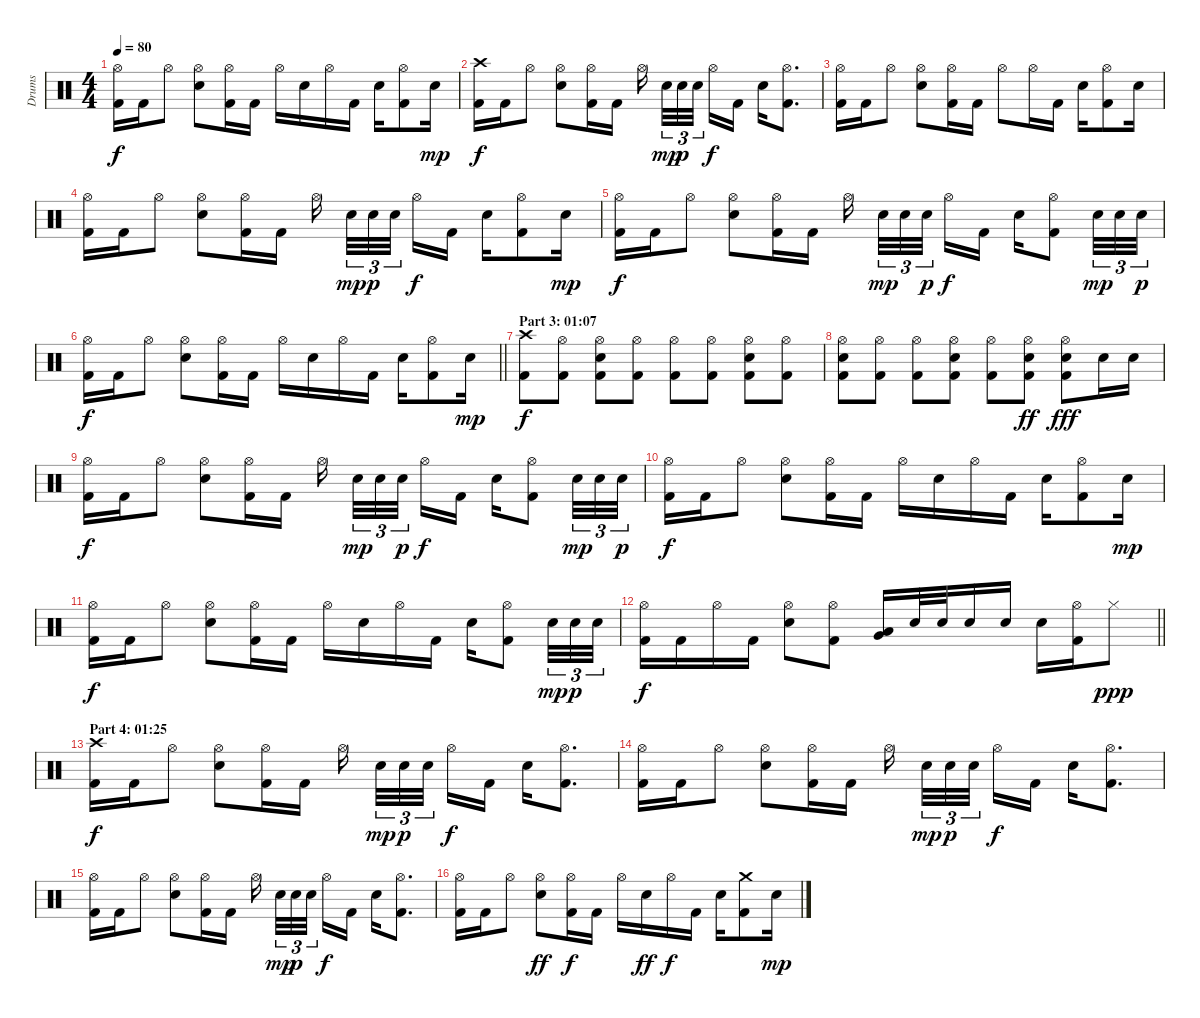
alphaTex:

\track ("Drums" "Drums") {instrument percussion}
\staff {score}
\articulation defaults
\ts (4 4)
\tempo 80
\clef neutral
\ks c
("Hi-Hat (open)" "Kick (hit) 2").16{dy f} "Kick (hit) 2".16 "Hi-Hat (open)".8 ("Hi-Hat (open)" "Electric Snare (hit)").8 ("Hi-Hat (open)" "Kick (hit) 2").16 "Kick (hit) 2".16 "Hi-Hat (open)".16 "Electric Snare (hit)".16 "Hi-Hat (open)".16 "Kick (hit) 2".16 "Electric Snare (hit)".16 ("Hi-Hat (open)" "Kick (hit) 2").8 "Electric Snare (hit)".16{dy mp} |
("Crash high (hit)" "Kick (hit) 2").16{dy f} "Kick (hit) 2".16 "Hi-Hat (open)".8 ("Hi-Hat (open)" "Electric Snare (hit)").8 ("Hi-Hat (open)" "Kick (hit) 2").16 "Kick (hit) 2".16 "Hi-Hat (open)".16{beam splitsecondary} "Electric Snare (hit)".32{tu (3 2) dy mp} "Electric Snare (hit)".32{tu (3 2) dy p} "Electric Snare (hit)".32{tu (3 2) beam splitsecondary} "Hi-Hat (open)".16{dy f} "Kick (hit) 2".16 "Electric Snare (hit)".16 ("Hi-Hat (open)" "Kick (hit) 2").8{d} |
("Hi-Hat (open)" "Kick (hit) 2").16 "Kick (hit) 2".16 "Hi-Hat (open)".8 ("Hi-Hat (open)" "Electric Snare (hit)").8 ("Hi-Hat (open)" "Kick (hit) 2").16 "Kick (hit) 2".16 "Hi-Hat (open)".8 "Hi-Hat (open)".16 "Kick (hit) 2".16 "Electric Snare (hit)".16 ("Hi-Hat (open)" "Kick (hit) 2").8 "Electric Snare (hit)".16 |
("Hi-Hat (open)" "Kick (hit) 2").16 "Kick (hit) 2".16 "Hi-Hat (open)".8 ("Hi-Hat (open)" "Electric Snare (hit)").8 ("Hi-Hat (open)" "Kick (hit) 2").16 "Kick (hit) 2".16 "Hi-Hat (open)".16{beam splitsecondary} "Electric Snare (hit)".32{tu (3 2) dy mp} "Electric Snare (hit)".32{tu (3 2) dy p} "Electric Snare (hit)".32{tu (3 2) beam splitsecondary} "Hi-Hat (open)".16{dy f} "Kick (hit) 2".16 "Electric Snare (hit)".16 ("Hi-Hat (open)" "Kick (hit) 2").8 "Electric Snare (hit)".16{dy mp} |
("Hi-Hat (open)" "Kick (hit) 2").16{dy f} "Kick (hit) 2".16 "Hi-Hat (open)".8 ("Hi-Hat (open)" "Electric Snare (hit)").8 ("Hi-Hat (open)" "Kick (hit) 2").16 "Kick (hit) 2".16 "Hi-Hat (open)".16{beam splitsecondary} "Electric Snare (hit)".32{tu (3 2) dy mp} "Electric Snare (hit)".32{tu (3 2)} "Electric Snare (hit)".32{tu (3 2) dy p beam splitsecondary} "Hi-Hat (open)".16{dy f} "Kick (hit) 2".16 "Electric Snare (hit)".16 ("Hi-Hat (open)" "Kick (hit) 2").8 "Electric Snare (hit)".32{tu (3 2) dy mp} "Electric Snare (hit)".32{tu (3 2)} "Electric Snare (hit)".32{tu (3 2) dy p} |
\barLineRight lightlight
("Hi-Hat (open)" "Kick (hit) 2").16{dy f} "Kick (hit) 2".16 "Hi-Hat (open)".8 ("Hi-Hat (open)" "Electric Snare (hit)").8 ("Hi-Hat (open)" "Kick (hit) 2").16 "Kick (hit) 2".16 "Hi-Hat (open)".16 "Electric Snare (hit)".16 "Hi-Hat (open)".16 "Kick (hit) 2".16 "Electric Snare (hit)".16 ("Hi-Hat (open)" "Kick (hit) 2").8 "Electric Snare (hit)".16{dy mp} |
\section ("" "Part 3: 01:07")
("Crash high (hit)" "Kick (hit) 2").8{dy f} ("Hi-Hat (open)" "Kick (hit) 2").8 ("Hi-Hat (open)" "Electric Snare (hit)" "Kick (hit) 2").8 ("Hi-Hat (open)" "Kick (hit) 2").8 ("Hi-Hat (open)" "Kick (hit) 2").8 ("Hi-Hat (open)" "Kick (hit) 2").8 ("Hi-Hat (open)" "Electric Snare (hit)" "Kick (hit) 2").8 ("Hi-Hat (open)" "Kick (hit) 2").8 |
("Hi-Hat (open)" "Electric Snare (hit)" "Kick (hit) 2").8 ("Hi-Hat (open)" "Kick (hit) 2").8 ("Hi-Hat (open)" "Kick (hit) 2").8 ("Hi-Hat (open)" "Electric Snare (hit)" "Kick (hit) 2").8 ("Hi-Hat (open)" "Kick (hit) 2").8 ("Hi-Hat (open)" "Electric Snare (hit)" "Kick (hit) 2").8{dy ff} ("Hi-Hat (open)" "Electric Snare (hit)" "Kick (hit) 2").8{dy fff} "Electric Snare (hit)".16 "Electric Snare (hit)".16 |
("Hi-Hat (open)" "Kick (hit) 2").16{dy f} "Kick (hit) 2".16 "Hi-Hat (open)".8 ("Hi-Hat (open)" "Electric Snare (hit)").8 ("Hi-Hat (open)" "Kick (hit) 2").16 "Kick (hit) 2".16 "Hi-Hat (open)".16{beam splitsecondary} "Electric Snare (hit)".32{tu (3 2) dy mp} "Electric Snare (hit)".32{tu (3 2)} "Electric Snare (hit)".32{tu (3 2) dy p beam splitsecondary} "Hi-Hat (open)".16{dy f} "Kick (hit) 2".16 "Electric Snare (hit)".16 ("Hi-Hat (open)" "Kick (hit) 2").8 "Electric Snare (hit)".32{tu (3 2) dy mp} "Electric Snare (hit)".32{tu (3 2)} "Electric Snare (hit)".32{tu (3 2) dy p} |
("Hi-Hat (open)" "Kick (hit) 2").16{dy f} "Kick (hit) 2".16 "Hi-Hat (open)".8 ("Hi-Hat (open)" "Electric Snare (hit)").8 ("Hi-Hat (open)" "Kick (hit) 2").16 "Kick (hit) 2".16 "Hi-Hat (open)".16 "Electric Snare (hit)".16 "Hi-Hat (open)".16 "Kick (hit) 2".16 "Electric Snare (hit)".16 ("Hi-Hat (open)" "Kick (hit) 2").8 "Electric Snare (hit)".16{dy mp} |
("Hi-Hat (open)" "Kick (hit) 2").16{dy f} "Kick (hit) 2".16 "Hi-Hat (open)".8 ("Hi-Hat (open)" "Electric Snare (hit)").8 ("Hi-Hat (open)" "Kick (hit) 2").16 "Kick (hit) 2".16 "Hi-Hat (open)".16 "Electric Snare (hit)".16 "Hi-Hat (open)".16 "Kick (hit) 2".16 "Electric Snare (hit)".16 ("Hi-Hat (open)" "Kick (hit) 2").8 "Electric Snare (hit)".32{tu (3 2) dy mp} "Electric Snare (hit)".32{tu (3 2) dy p} "Electric Snare (hit)".32{tu (3 2)} |
\barLineRight lightlight
("Hi-Hat (open)" "Kick (hit) 2").16{dy f} "Kick (hit) 2".16 "Hi-Hat (open)".16 "Kick (hit) 2".16 ("Hi-Hat (open)" "Electric Snare (hit)").8 ("Hi-Hat (open)" "Kick (hit) 2").8 ("Low Tom (hit)" "Very Low Tom (hit)").16{bu 60} "Electric Snare (hit)".32 "Electric Snare (hit)".32 "Electric Snare (hit)".16 "Electric Snare (hit)".16 "Electric Snare (hit)".16 ("Hi-Hat (open)" "Kick (hit) 2").16 "Hi-Hat (closed)".8{dy ppp} |
\section ("" "Part 4: 01:25")
("Crash high (hit)" "Kick (hit) 2").16{dy f} "Kick (hit) 2".16 "Hi-Hat (open)".8 ("Hi-Hat (open)" "Electric Snare (hit)").8 ("Hi-Hat (open)" "Kick (hit) 2").16 "Kick (hit) 2".16 "Hi-Hat (open)".16{beam splitsecondary} "Electric Snare (hit)".32{tu (3 2) dy mp} "Electric Snare (hit)".32{tu (3 2) dy p} "Electric Snare (hit)".32{tu (3 2) beam splitsecondary} "Hi-Hat (open)".16{dy f} "Kick (hit) 2".16 "Electric Snare (hit)".16 ("Hi-Hat (open)" "Kick (hit) 2").8{d} |
("Hi-Hat (open)" "Kick (hit) 2").16 "Kick (hit) 2".16 "Hi-Hat (open)".8 ("Hi-Hat (open)" "Electric Snare (hit)").8 ("Hi-Hat (open)" "Kick (hit) 2").16 "Kick (hit) 2".16 "Hi-Hat (open)".16{beam splitsecondary} "Electric Snare (hit)".32{tu (3 2) dy mp} "Electric Snare (hit)".32{tu (3 2) dy p} "Electric Snare (hit)".32{tu (3 2) beam splitsecondary} "Hi-Hat (open)".16{dy f} "Kick (hit) 2".16 "Electric Snare (hit)".16 ("Hi-Hat (open)" "Kick (hit) 2").8{d} |
("Hi-Hat (open)" "Kick (hit) 2").16 "Kick (hit) 2".16 "Hi-Hat (open)".8 ("Hi-Hat (open)" "Electric Snare (hit)").8 ("Hi-Hat (open)" "Kick (hit) 2").16 "Kick (hit) 2".16 "Hi-Hat (open)".16{beam splitsecondary} "Electric Snare (hit)".32{tu (3 2) dy mp} "Electric Snare (hit)".32{tu (3 2) dy p} "Electric Snare (hit)".32{tu (3 2) beam splitsecondary} "Hi-Hat (open)".16{dy f} "Kick (hit) 2".16 "Electric Snare (hit)".16 ("Hi-Hat (open)" "Kick (hit) 2").8{d} |
("Hi-Hat (open)" "Kick (hit) 2").16 "Kick (hit) 2".16 "Hi-Hat (open)".8 ("Hi-Hat (open)" "Electric Snare (hit)").8{dy ff} ("Hi-Hat (open)" "Kick (hit) 2").16{dy f} "Kick (hit) 2".16 "Hi-Hat (open)".16 "Electric Snare (hit)".16{dy ff} "Hi-Hat (open)".16{dy f} "Kick (hit) 2".16 "Electric Snare (hit)".16 ("Crash medium (hit)" "Kick (hit) 2").8 "Electric Snare (hit)".16{dy mp}
